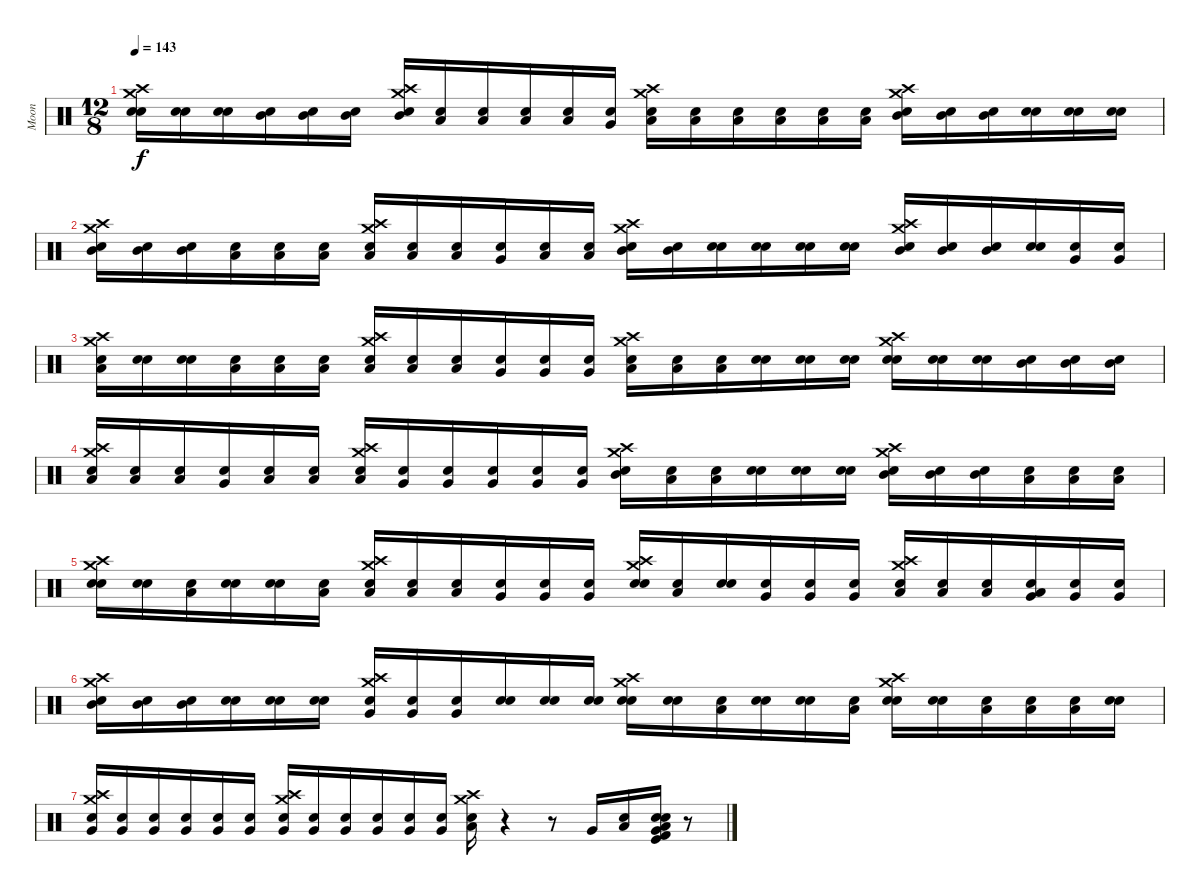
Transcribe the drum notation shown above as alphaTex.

\track ("Moon" "Moon") {instrument percussion}
\staff {score}
\articulation defaults
\ts (12 8)
\tempo 143
\clef neutral
\ks c
("Snare (hit)" "Snare (hit) 2" "Crash medium (hit)" "Crash high (hit)").16{dy f} ("Snare (hit)" "Snare (hit) 2").16 ("Snare (hit)" "Snare (hit) 2").16 ("Snare (hit)" "Mid Tom (hit)").16 ("Snare (hit)" "Mid Tom (hit)").16 ("Snare (hit)" "Mid Tom (hit)").16 ("Snare (hit)" "Mid Tom (hit)" "Crash high (hit)" "Crash medium (hit)").16 ("Snare (hit)" "Low Tom (hit)").16 ("Snare (hit)" "Low Tom (hit)").16 ("Snare (hit)" "Low Floor Tom (hit)").16 ("Snare (hit)" "Low Floor Tom (hit)").16 ("Snare (hit)" "Very Low Tom (hit)").16 ("Snare (hit)" "Low Tom (hit)" "Crash medium (hit)" "Crash high (hit)").16 ("Snare (hit)" "Low Tom (hit)").16 ("Snare (hit)" "Low Tom (hit)").16 ("Snare (hit)" "Low Tom (hit)").16 ("Snare (hit)" "Low Tom (hit)").16 ("Snare (hit)" "Low Tom (hit)").16 ("Snare (hit)" "Mid Tom (hit)" "Crash high (hit)" "Crash medium (hit)").16 ("Snare (hit)" "Mid Tom (hit)").16 ("Snare (hit)" "Mid Tom (hit)").16 ("Snare (hit)" "Snare (hit) 2").16 ("Snare (hit)" "Snare (hit) 2").16 ("Snare (hit)" "Snare (hit) 2").16 |
("Snare (hit)" "Mid Tom (hit)" "Crash medium (hit)" "Crash high (hit)").16 ("Snare (hit)" "Mid Tom (hit)").16 ("Snare (hit)" "Mid Tom (hit)").16 ("Snare (hit)" "Low Tom (hit)").16 ("Snare (hit)" "Low Tom (hit)").16 ("Snare (hit)" "Low Tom (hit)").16 ("Snare (hit)" "Low Floor Tom (hit)" "Crash high (hit)" "Crash medium (hit)").16 ("Snare (hit)" "Low Floor Tom (hit)").16 ("Snare (hit)" "Low Floor Tom (hit)").16 ("Snare (hit)" "Very Low Tom (hit)").16 ("Snare (hit)" "Low Floor Tom (hit)").16 ("Snare (hit)" "Low Floor Tom (hit)").16 ("Snare (hit)" "Mid Tom (hit)" "Crash medium (hit)" "Crash high (hit)").16 ("Snare (hit)" "Mid Tom (hit)").16 ("Snare (hit)" "Electric Snare (hit)").16 ("Snare (hit)" "Snare (hit) 2").16 ("Snare (hit)" "Snare (hit) 2").16 ("Snare (hit)" "Snare (hit) 2").16 ("Snare (hit)" "Mid Tom (hit)" "Crash high (hit)" "Crash medium (hit)").16 ("Snare (hit)" "Mid Tom (hit)").16 ("Snare (hit)" "Mid Tom (hit)").16 ("Snare (hit)" "Snare (hit) 2").16 ("Snare (hit)" "Very Low Tom (hit)").16 ("Snare (hit)" "Very Low Tom (hit)").16 |
("Snare (hit)" "Low Floor Tom (hit)" "Crash medium (hit)" "Crash high (hit)").16 ("Snare (hit)" "Electric Snare (hit)").16 ("Snare (hit)" "Electric Snare (hit)").16 ("Snare (hit)" "Low Floor Tom (hit)").16 ("Snare (hit)" "Low Floor Tom (hit)").16 ("Snare (hit)" "Low Floor Tom (hit)").16 ("Snare (hit)" "Low Floor Tom (hit)" "Crash high (hit)" "Crash medium (hit)").16 ("Snare (hit)" "Low Floor Tom (hit)").16 ("Snare (hit)" "Low Floor Tom (hit)").16 ("Snare (hit)" "Very Low Tom (hit)").16 ("Snare (hit)" "Very Low Tom (hit)").16 ("Snare (hit)" "Very Low Tom (hit)").16 ("Snare (hit)" "Low Tom (hit)" "Crash medium (hit)" "Crash high (hit)").16 ("Snare (hit)" "Low Tom (hit)").16 ("Snare (hit)" "Low Tom (hit)").16 ("Snare (hit)" "Electric Snare (hit)").16 ("Snare (hit)" "Electric Snare (hit)").16 ("Snare (hit)" "Electric Snare (hit)").16 ("Snare (hit)" "Electric Snare (hit)" "Crash high (hit)" "Crash medium (hit)").16 ("Snare (hit)" "Electric Snare (hit)").16 ("Snare (hit)" "Electric Snare (hit)").16 ("Snare (hit)" "Mid Tom (hit)").16 ("Snare (hit)" "Mid Tom (hit)").16 ("Snare (hit)" "Mid Tom (hit)").16 |
("Snare (hit)" "Low Floor Tom (hit)" "Crash medium (hit)" "Crash high (hit)").16 ("Snare (hit)" "Low Floor Tom (hit)").16 ("Snare (hit)" "Low Floor Tom (hit)").16 ("Snare (hit)" "Very Low Tom (hit)").16 ("Snare (hit)" "Low Floor Tom (hit)").16 ("Snare (hit)" "Low Floor Tom (hit)").16 ("Snare (hit)" "Low Tom (hit)" "Crash high (hit)" "Crash medium (hit)").16 ("Snare (hit)" "Very Low Tom (hit)").16 ("Snare (hit)" "Very Low Tom (hit)").16 ("Snare (hit)" "Very Low Tom (hit)").16 ("Snare (hit)" "Very Low Tom (hit)").16 ("Snare (hit)" "Very Low Tom (hit)").16 ("Snare (hit)" "Mid Tom (hit)" "Crash medium (hit)" "Crash high (hit)").16 ("Snare (hit)" "Low Tom (hit)").16 ("Snare (hit)" "Low Tom (hit)").16 ("Snare (hit)" "Electric Snare (hit)").16 ("Snare (hit)" "Electric Snare (hit)").16 ("Snare (hit)" "Electric Snare (hit)").16 ("Snare (hit)" "Mid Tom (hit)" "Crash high (hit)" "Crash medium (hit)").16 ("Snare (hit)" "Mid Tom (hit)").16 ("Snare (hit)" "Mid Tom (hit)").16 ("Snare (hit)" "Low Tom (hit)").16 ("Snare (hit)" "Low Tom (hit)").16 ("Snare (hit)" "Low Tom (hit)").16 |
("Snare (hit)" "Electric Snare (hit)" "Crash medium (hit)" "Crash high (hit)").16 ("Snare (hit)" "Electric Snare (hit)").16 ("Snare (hit)" "Low Tom (hit)").16 ("Snare (hit)" "Electric Snare (hit)").16 ("Snare (hit)" "Electric Snare (hit)").16 ("Snare (hit)" "Low Tom (hit)").16 ("Snare (hit)" "Low Floor Tom (hit)" "Crash high (hit)" "Crash medium (hit)").16 ("Snare (hit)" "Low Floor Tom (hit)").16 ("Snare (hit)" "Low Floor Tom (hit)").16 ("Snare (hit)" "Very Low Tom (hit)").16 ("Snare (hit)" "Very Low Tom (hit)").16 ("Snare (hit)" "Very Low Tom (hit)").16 ("Snare (hit)" "Electric Snare (hit)" "Crash medium (hit)" "Crash high (hit)").16 ("Snare (hit)" "Low Tom (hit)").16 ("Snare (hit)" "Snare (hit) 2").16 ("Snare (hit)" "Very Low Tom (hit)").16 ("Snare (hit)" "Very Low Tom (hit)").16 ("Snare (hit)" "Very Low Tom (hit)").16 ("Snare (hit)" "Low Floor Tom (hit)" "Crash high (hit)" "Crash medium (hit)").16 ("Snare (hit)" "Low Floor Tom (hit)").16 ("Snare (hit)" "Low Floor Tom (hit)").16 ("Snare (hit)" "Low Tom (hit)" "Very Low Tom (hit)").16 ("Snare (hit)" "Very Low Tom (hit)").16 ("Snare (hit)" "Very Low Tom (hit)").16 |
("Snare (hit)" "Mid Tom (hit)" "Crash medium (hit)" "Crash high (hit)").16 ("Snare (hit)" "Mid Tom (hit)").16 ("Snare (hit)" "Mid Tom (hit)").16 ("Snare (hit)" "Snare (hit) 2").16 ("Snare (hit)" "Snare (hit) 2").16 ("Snare (hit)" "Snare (hit) 2").16 ("Snare (hit)" "Very Low Tom (hit)" "Crash high (hit)" "Crash medium (hit)").16 ("Snare (hit)" "Very Low Tom (hit)").16 ("Snare (hit)" "Very Low Tom (hit)").16 ("Snare (hit)" "Electric Snare (hit)").16 ("Snare (hit)" "Electric Snare (hit)").16 ("Snare (hit)" "Electric Snare (hit)").16 ("Snare (hit)" "Snare (hit) 2" "Crash medium (hit)" "Crash high (hit)").16 ("Snare (hit)" "Snare (hit) 2").16 ("Snare (hit)" "Low Floor Tom (hit)").16 ("Snare (hit)" "Electric Snare (hit)").16 ("Snare (hit)" "Electric Snare (hit)").16 ("Snare (hit)" "Low Floor Tom (hit)").16 ("Snare (hit)" "Electric Snare (hit)" "Crash high (hit)" "Crash medium (hit)").16 ("Snare (hit)" "Electric Snare (hit)").16 ("Snare (hit)" "Low Floor Tom (hit)").16 ("Snare (hit)" "Low Floor Tom (hit)").16 ("Snare (hit)" "Low Floor Tom (hit)").16 ("Snare (hit)" "Snare (hit) 2").16 |
("Snare (hit)" "Very Low Tom (hit)" "Crash medium (hit)" "Crash high (hit)").16 ("Snare (hit)" "Very Low Tom (hit)").16 ("Snare (hit)" "Very Low Tom (hit)").16 ("Snare (hit)" "Very Low Tom (hit)").16 ("Snare (hit)" "Very Low Tom (hit)").16 ("Snare (hit)" "Very Low Tom (hit)").16 ("Snare (hit)" "Very Low Tom (hit)" "Crash high (hit)" "Crash medium (hit)").16 ("Snare (hit)" "Very Low Tom (hit)").16 ("Snare (hit)" "Very Low Tom (hit)").16 ("Snare (hit)" "Very Low Tom (hit)").16 ("Snare (hit)" "Very Low Tom (hit)").16 ("Snare (hit)" "Very Low Tom (hit)").16 ("Snare (hit)" "Low Floor Tom (hit)" "Crash high (hit)" "Crash medium (hit)").16 r.4 r.8 "Very Low Tom (hit)".16 ("Snare (hit)" "Low Floor Tom (hit)").16 ("Snare (hit)" "Electric Snare (hit)" "Kick (hit) 2" "Low Floor Tom (hit)" "Very Low Tom (hit)" "Kick (hit)").16 r.8
